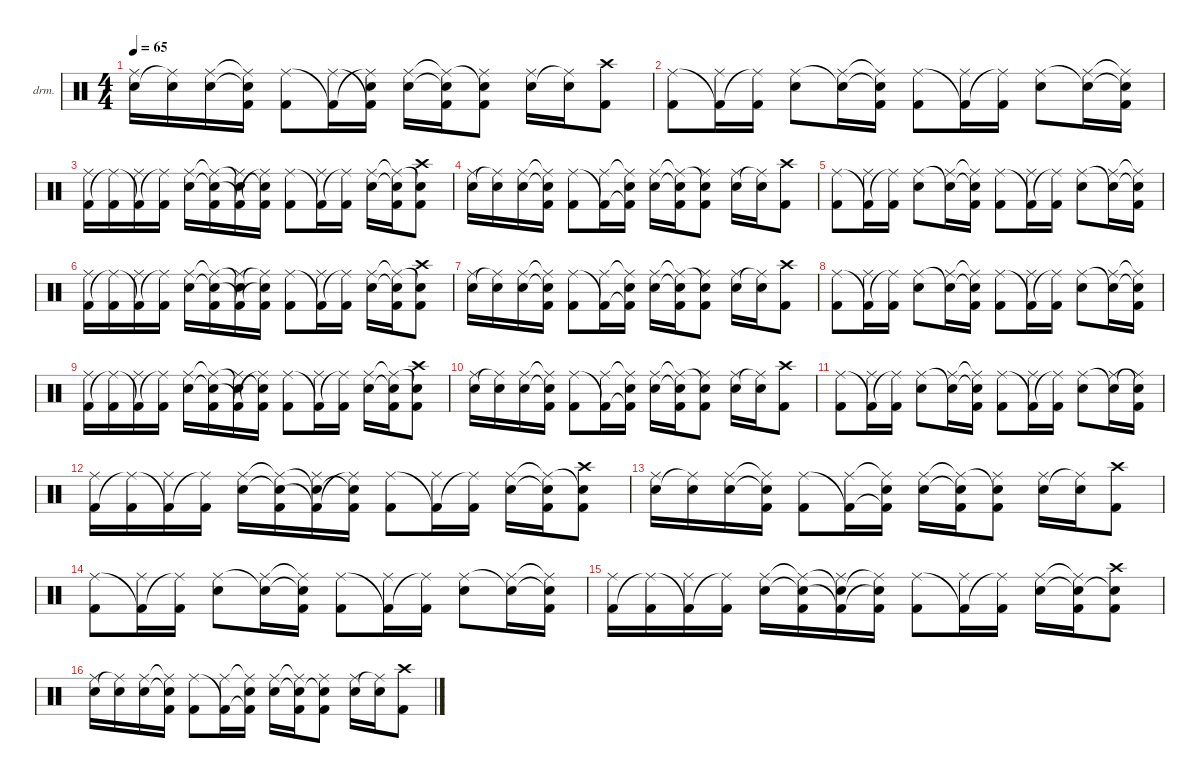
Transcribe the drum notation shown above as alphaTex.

\hideDynamics
\bracketExtendMode nobrackets
\firstSystemTrackNameOrientation horizontal
\otherSystemsTrackNameOrientation horizontal
\track ("Drums" "drm.") {instrument percussion}
\staff {score}
\articulation defaults
\ts (4 4)
\tempo 65
\clef neutral
\ks aminor
("Snare (hit) 2" "Ride (middle)"{acc #}).16{dy ff beam Down} ("Ride (middle)"{t acc #} "Snare (hit) 2").16{beam Down} ("Snare (hit) 2" "Ride (middle)"{acc #}).16{beam Down} ("Snare (hit) 2"{t} "Ride (middle)"{t acc #} "Kick (hit) 2").16{beam Down} ("Ride (middle)"{acc #} "Kick (hit) 2").8{beam Down} ("Kick (hit) 2"{t} "Ride (middle)"{acc #}).16{beam Down} ("Ride (middle)"{t acc #} "Kick (hit) 2"{t} "Snare (hit) 2").16{beam Down} ("Ride (middle)"{acc #} "Snare (hit) 2").16{beam Down} ("Ride (middle)"{t acc #} "Snare (hit) 2"{t} "Kick (hit) 2").16{beam Down} ("Snare (hit) 2"{t} "Kick (hit) 2" "Ride (middle)"{acc #}).8{beam Down} ("Snare (hit) 2" "Ride (middle)"{acc #}).16{beam Down} ("Ride (middle)"{t acc #} "Snare (hit) 2").16{beam Down} ("Kick (hit) 2" "Crash high (hit)"{acc #}).8{beam Down} |
("Ride (middle)"{acc #} "Kick (hit) 2").8{beam Down} ("Kick (hit) 2"{t} "Ride (middle)"{acc #}).16{beam Down} ("Ride (middle)"{t acc #} "Kick (hit) 2").16{beam Down} ("Ride (middle)"{acc #} "Snare (hit) 2").8{beam Down} ("Snare (hit) 2"{t} "Ride (middle)"{acc #}).16{beam Down} ("Snare (hit) 2"{t} "Ride (middle)"{t acc #} "Kick (hit) 2").16{beam Down} ("Ride (middle)"{acc #} "Kick (hit) 2").8{beam Down} ("Kick (hit) 2"{t} "Ride (middle)"{acc #}).16{beam Down} ("Ride (middle)"{t acc #} "Kick (hit) 2").16{beam Down} ("Ride (middle)"{acc #} "Snare (hit) 2").8{beam Down} ("Snare (hit) 2"{t} "Ride (middle)"{acc #}).16{beam Down} ("Snare (hit) 2"{t} "Ride (middle)"{t acc #} "Kick (hit) 2").16{beam Down} |
("Kick (hit) 2" "Ride (middle)"{acc #}).16{beam Down} ("Ride (middle)"{t acc #} "Kick (hit) 2").16{beam Down} ("Kick (hit) 2"{t} "Ride (middle)"{acc #}).16{beam Down} ("Ride (middle)"{t acc #} "Kick (hit) 2").16{beam Down} ("Ride (middle)"{acc #} "Snare (hit) 2").16{beam Down} ("Ride (middle)"{t acc #} "Snare (hit) 2"{t} "Kick (hit) 2").16{beam Down} ("Snare (hit) 2"{t} "Kick (hit) 2"{t} "Ride (middle)"{acc #}).16{beam Down} ("Snare (hit) 2"{t} "Ride (middle)"{t acc #} "Kick (hit) 2").16{beam Down} ("Ride (middle)"{acc #} "Kick (hit) 2").8{beam Down} ("Kick (hit) 2"{t} "Ride (middle)"{acc #}).16{beam Down} ("Ride (middle)"{t acc #} "Kick (hit) 2").16{beam Down} ("Ride (middle)"{acc #} "Snare (hit) 2").16{beam Down} ("Ride (middle)"{t acc #} "Snare (hit) 2"{t} "Kick (hit) 2").16{beam Down} ("Snare (hit) 2"{t} "Kick (hit) 2" "Crash high (hit)"{acc #}).8{beam Down} |
("Snare (hit) 2" "Ride (middle)"{acc #}).16{beam Down} ("Ride (middle)"{t acc #} "Snare (hit) 2").16{beam Down} ("Snare (hit) 2" "Ride (middle)"{acc #}).16{beam Down} ("Snare (hit) 2"{t} "Ride (middle)"{t acc #} "Kick (hit) 2").16{beam Down} ("Ride (middle)"{acc #} "Kick (hit) 2").8{beam Down} ("Kick (hit) 2"{t} "Ride (middle)"{acc #}).16{beam Down} ("Kick (hit) 2"{t} "Ride (middle)"{t acc #} "Snare (hit) 2").16{beam Down} ("Ride (middle)"{acc #} "Snare (hit) 2").16{beam Down} ("Ride (middle)"{t acc #} "Snare (hit) 2"{t} "Kick (hit) 2").16{beam Down} ("Snare (hit) 2"{t} "Kick (hit) 2" "Ride (middle)"{acc #}).8{beam Down} ("Snare (hit) 2" "Ride (middle)"{acc #}).16{beam Down} ("Ride (middle)"{t acc #} "Snare (hit) 2").16{beam Down} ("Kick (hit) 2" "Crash high (hit)"{acc #}).8{beam Down} |
("Ride (middle)"{acc #} "Kick (hit) 2").8{beam Down} ("Kick (hit) 2"{t} "Ride (middle)"{acc #}).16{beam Down} ("Ride (middle)"{t acc #} "Kick (hit) 2").16{beam Down} ("Ride (middle)"{acc #} "Snare (hit) 2").8{beam Down} ("Snare (hit) 2"{t} "Ride (middle)"{acc #}).16{beam Down} ("Snare (hit) 2"{t} "Ride (middle)"{t acc #} "Kick (hit) 2").16{beam Down} ("Ride (middle)"{acc #} "Kick (hit) 2").8{beam Down} ("Kick (hit) 2"{t} "Ride (middle)"{acc #}).16{beam Down} ("Ride (middle)"{t acc #} "Kick (hit) 2").16{beam Down} ("Ride (middle)"{acc #} "Snare (hit) 2").8{beam Down} ("Snare (hit) 2"{t} "Ride (middle)"{acc #}).16{beam Down} ("Snare (hit) 2"{t} "Ride (middle)"{t acc #} "Kick (hit) 2").16{beam Down} |
("Kick (hit) 2" "Ride (middle)"{acc #}).16{beam Down} ("Ride (middle)"{t acc #} "Kick (hit) 2").16{beam Down} ("Kick (hit) 2"{t} "Ride (middle)"{acc #}).16{beam Down} ("Ride (middle)"{t acc #} "Kick (hit) 2").16{beam Down} ("Ride (middle)"{acc #} "Snare (hit) 2").16{beam Down} ("Ride (middle)"{t acc #} "Snare (hit) 2"{t} "Kick (hit) 2").16{beam Down} ("Snare (hit) 2"{t} "Kick (hit) 2"{t} "Ride (middle)"{acc #}).16{beam Down} ("Ride (middle)"{t acc #} "Snare (hit) 2"{t} "Kick (hit) 2").16{beam Down} ("Ride (middle)"{acc #} "Kick (hit) 2").8{beam Down} ("Kick (hit) 2"{t} "Ride (middle)"{acc #}).16{beam Down} ("Ride (middle)"{t acc #} "Kick (hit) 2").16{beam Down} ("Ride (middle)"{acc #} "Snare (hit) 2").16{beam Down} ("Ride (middle)"{t acc #} "Snare (hit) 2"{t} "Kick (hit) 2").16{beam Down} ("Snare (hit) 2"{t} "Kick (hit) 2" "Crash high (hit)"{acc #}).8{beam Down} |
("Snare (hit) 2" "Ride (middle)"{acc #}).16{beam Down} ("Ride (middle)"{t acc #} "Snare (hit) 2").16{beam Down} ("Snare (hit) 2" "Ride (middle)"{acc #}).16{beam Down} ("Snare (hit) 2"{t} "Ride (middle)"{t acc #} "Kick (hit) 2").16{beam Down} ("Ride (middle)"{acc #} "Kick (hit) 2").8{beam Down} ("Kick (hit) 2"{t} "Ride (middle)"{acc #}).16{beam Down} ("Kick (hit) 2"{t} "Ride (middle)"{t acc #} "Snare (hit) 2").16{beam Down} ("Ride (middle)"{acc #} "Snare (hit) 2").16{beam Down} ("Ride (middle)"{t acc #} "Snare (hit) 2"{t} "Kick (hit) 2").16{beam Down} ("Snare (hit) 2"{t} "Kick (hit) 2" "Ride (middle)"{acc #}).8{beam Down} ("Snare (hit) 2" "Ride (middle)"{acc #}).16{beam Down} ("Ride (middle)"{t acc #} "Snare (hit) 2").16{beam Down} ("Kick (hit) 2" "Crash high (hit)"{acc #}).8{beam Down} |
("Ride (middle)"{acc #} "Kick (hit) 2").8{beam Down} ("Kick (hit) 2"{t} "Ride (middle)"{acc #}).16{beam Down} ("Ride (middle)"{t acc #} "Kick (hit) 2").16{beam Down} ("Ride (middle)"{acc #} "Snare (hit) 2").8{beam Down} ("Snare (hit) 2"{t} "Ride (middle)"{acc #}).16{beam Down} ("Snare (hit) 2"{t} "Ride (middle)"{t acc #} "Kick (hit) 2").16{beam Down} ("Ride (middle)"{acc #} "Kick (hit) 2").8{beam Down} ("Kick (hit) 2"{t} "Ride (middle)"{acc #}).16{beam Down} ("Ride (middle)"{t acc #} "Kick (hit) 2").16{beam Down} ("Ride (middle)"{acc #} "Snare (hit) 2").8{beam Down} ("Snare (hit) 2"{t} "Ride (middle)"{acc #}).16{beam Down} ("Snare (hit) 2"{t} "Ride (middle)"{t acc #} "Kick (hit) 2").16{beam Down} |
("Kick (hit) 2" "Ride (middle)"{acc #}).16{beam Down} ("Ride (middle)"{t acc #} "Kick (hit) 2").16{beam Down} ("Kick (hit) 2"{t} "Ride (middle)"{acc #}).16{beam Down} ("Ride (middle)"{t acc #} "Kick (hit) 2").16{beam Down} ("Ride (middle)"{acc #} "Snare (hit) 2").16{beam Down} ("Ride (middle)"{t acc #} "Snare (hit) 2"{t} "Kick (hit) 2").16{beam Down} ("Snare (hit) 2"{t} "Kick (hit) 2"{t} "Ride (middle)"{acc #}).16{beam Down} ("Snare (hit) 2"{t} "Ride (middle)"{t acc #} "Kick (hit) 2").16{beam Down} ("Ride (middle)"{acc #} "Kick (hit) 2").8{beam Down} ("Kick (hit) 2"{t} "Ride (middle)"{acc #}).16{beam Down} ("Ride (middle)"{t acc #} "Kick (hit) 2").16{beam Down} ("Ride (middle)"{acc #} "Snare (hit) 2").16{beam Down} ("Ride (middle)"{t acc #} "Snare (hit) 2"{t} "Kick (hit) 2").16{beam Down} ("Snare (hit) 2"{t} "Kick (hit) 2" "Crash high (hit)"{acc #}).8{beam Down} |
("Snare (hit) 2" "Ride (middle)"{acc #}).16{beam Down} ("Ride (middle)"{t acc #} "Snare (hit) 2").16{beam Down} ("Snare (hit) 2" "Ride (middle)"{acc #}).16{beam Down} ("Snare (hit) 2"{t} "Ride (middle)"{t acc #} "Kick (hit) 2").16{beam Down} ("Ride (middle)"{acc #} "Kick (hit) 2").8{beam Down} ("Kick (hit) 2"{t} "Ride (middle)"{acc #}).16{beam Down} ("Kick (hit) 2"{t} "Ride (middle)"{t acc #} "Snare (hit) 2").16{beam Down} ("Ride (middle)"{acc #} "Snare (hit) 2").16{beam Down} ("Ride (middle)"{t acc #} "Snare (hit) 2"{t} "Kick (hit) 2").16{beam Down} ("Snare (hit) 2"{t} "Kick (hit) 2" "Ride (middle)"{acc #}).8{beam Down} ("Snare (hit) 2" "Ride (middle)"{acc #}).16{beam Down} ("Ride (middle)"{t acc #} "Snare (hit) 2").16{beam Down} ("Kick (hit) 2" "Crash high (hit)"{acc #}).8{beam Down} |
("Ride (middle)"{acc #} "Kick (hit) 2").8{beam Down} ("Kick (hit) 2"{t} "Ride (middle)"{acc #}).16{beam Down} ("Ride (middle)"{t acc #} "Kick (hit) 2").16{beam Down} ("Ride (middle)"{acc #} "Snare (hit) 2").8{beam Down} ("Snare (hit) 2"{t} "Ride (middle)"{acc #}).16{beam Down} ("Snare (hit) 2"{t} "Ride (middle)"{t acc #} "Kick (hit) 2").16{beam Down} ("Ride (middle)"{acc #} "Kick (hit) 2").8{beam Down} ("Kick (hit) 2"{t} "Ride (middle)"{acc #}).16{beam Down} ("Ride (middle)"{t acc #} "Kick (hit) 2").16{beam Down} ("Ride (middle)"{acc #} "Snare (hit) 2").8{beam Down} ("Snare (hit) 2"{t} "Ride (middle)"{acc #}).16{beam Down} ("Ride (middle)"{t acc #} "Snare (hit) 2"{t} "Kick (hit) 2").16{beam Down} |
("Kick (hit) 2" "Ride (middle)"{acc #}).16{beam Down} ("Ride (middle)"{t acc #} "Kick (hit) 2").16{beam Down} ("Kick (hit) 2"{t} "Ride (middle)"{acc #}).16{beam Down} ("Ride (middle)"{t acc #} "Kick (hit) 2").16{beam Down} ("Ride (middle)"{acc #} "Snare (hit) 2").16{beam Down} ("Ride (middle)"{t acc #} "Snare (hit) 2"{t} "Kick (hit) 2").16{beam Down} ("Snare (hit) 2"{t} "Kick (hit) 2"{t} "Ride (middle)"{acc #}).16{beam Down} ("Snare (hit) 2"{t} "Ride (middle)"{t acc #} "Kick (hit) 2").16{beam Down} ("Ride (middle)"{acc #} "Kick (hit) 2").8{beam Down} ("Kick (hit) 2"{t} "Ride (middle)"{acc #}).16{beam Down} ("Ride (middle)"{t acc #} "Kick (hit) 2").16{beam Down} ("Ride (middle)"{acc #} "Snare (hit) 2").16{beam Down} ("Ride (middle)"{t acc #} "Snare (hit) 2"{t} "Kick (hit) 2").16{beam Down} ("Snare (hit) 2"{t} "Kick (hit) 2" "Crash high (hit)"{acc #}).8{beam Down} |
("Snare (hit) 2" "Ride (middle)"{acc #}).16{beam Down} ("Ride (middle)"{t acc #} "Snare (hit) 2").16{beam Down} ("Snare (hit) 2" "Ride (middle)"{acc #}).16{beam Down} ("Snare (hit) 2"{t} "Ride (middle)"{t acc #} "Kick (hit) 2").16{beam Down} ("Ride (middle)"{acc #} "Kick (hit) 2").8{beam Down} ("Kick (hit) 2"{t} "Ride (middle)"{acc #}).16{beam Down} ("Kick (hit) 2"{t} "Ride (middle)"{t acc #} "Snare (hit) 2").16{beam Down} ("Ride (middle)"{acc #} "Snare (hit) 2").16{beam Down} ("Ride (middle)"{t acc #} "Snare (hit) 2"{t} "Kick (hit) 2").16{beam Down} ("Snare (hit) 2"{t} "Kick (hit) 2" "Ride (middle)"{acc #}).8{beam Down} ("Snare (hit) 2" "Ride (middle)"{acc #}).16{beam Down} ("Ride (middle)"{t acc #} "Snare (hit) 2").16{beam Down} ("Kick (hit) 2" "Crash high (hit)"{acc #}).8{beam Down} |
("Ride (middle)"{acc #} "Kick (hit) 2").8{beam Down} ("Kick (hit) 2"{t} "Ride (middle)"{acc #}).16{beam Down} ("Ride (middle)"{t acc #} "Kick (hit) 2").16{beam Down} ("Ride (middle)"{acc #} "Snare (hit) 2").8{beam Down} ("Snare (hit) 2"{t} "Ride (middle)"{acc #}).16{beam Down} ("Snare (hit) 2"{t} "Ride (middle)"{t acc #} "Kick (hit) 2").16{beam Down} ("Ride (middle)"{acc #} "Kick (hit) 2").8{beam Down} ("Kick (hit) 2"{t} "Ride (middle)"{acc #}).16{beam Down} ("Ride (middle)"{t acc #} "Kick (hit) 2").16{beam Down} ("Ride (middle)"{acc #} "Snare (hit) 2").8{beam Down} ("Snare (hit) 2"{t} "Ride (middle)"{acc #}).16{beam Down} ("Snare (hit) 2"{t} "Ride (middle)"{t acc #} "Kick (hit) 2").16{beam Down} |
("Kick (hit) 2" "Ride (middle)"{acc #}).16{beam Down} ("Ride (middle)"{t acc #} "Kick (hit) 2").16{beam Down} ("Kick (hit) 2"{t} "Ride (middle)"{acc #}).16{beam Down} ("Ride (middle)"{t acc #} "Kick (hit) 2").16{beam Down} ("Ride (middle)"{acc #} "Snare (hit) 2").16{beam Down} ("Ride (middle)"{t acc #} "Snare (hit) 2"{t} "Kick (hit) 2").16{beam Down} ("Snare (hit) 2"{t} "Kick (hit) 2"{t} "Ride (middle)"{acc #}).16{beam Down} ("Ride (middle)"{t acc #} "Snare (hit) 2"{t} "Kick (hit) 2").16{beam Down} ("Ride (middle)"{acc #} "Kick (hit) 2").8{beam Down} ("Kick (hit) 2"{t} "Ride (middle)"{acc #}).16{beam Down} ("Ride (middle)"{t acc #} "Kick (hit) 2").16{beam Down} ("Ride (middle)"{acc #} "Snare (hit) 2").16{beam Down} ("Ride (middle)"{t acc #} "Snare (hit) 2"{t} "Kick (hit) 2").16{beam Down} ("Kick (hit) 2" "Snare (hit) 2"{t} "Crash high (hit)"{acc #}).8{beam Down} |
("Snare (hit) 2" "Ride (middle)"{acc #}).16{beam Down} ("Ride (middle)"{t acc #} "Snare (hit) 2").16{beam Down} ("Snare (hit) 2" "Ride (middle)"{acc #}).16{beam Down} ("Snare (hit) 2"{t} "Ride (middle)"{t acc #} "Kick (hit) 2").16{beam Down} ("Ride (middle)"{acc #} "Kick (hit) 2").8{beam Down} ("Kick (hit) 2"{t} "Ride (middle)"{acc #}).16{beam Down} ("Kick (hit) 2"{t} "Ride (middle)"{t acc #} "Snare (hit) 2").16{beam Down} ("Ride (middle)"{acc #} "Snare (hit) 2").16{beam Down} ("Ride (middle)"{t acc #} "Snare (hit) 2"{t} "Kick (hit) 2").16{beam Down} ("Kick (hit) 2" "Snare (hit) 2"{t} "Ride (middle)"{acc #}).8{beam Down} ("Snare (hit) 2" "Ride (middle)"{acc #}).16{beam Down} ("Ride (middle)"{t acc #} "Snare (hit) 2").16{beam Down} ("Kick (hit) 2" "Crash high (hit)"{acc #}).8{beam Down}
